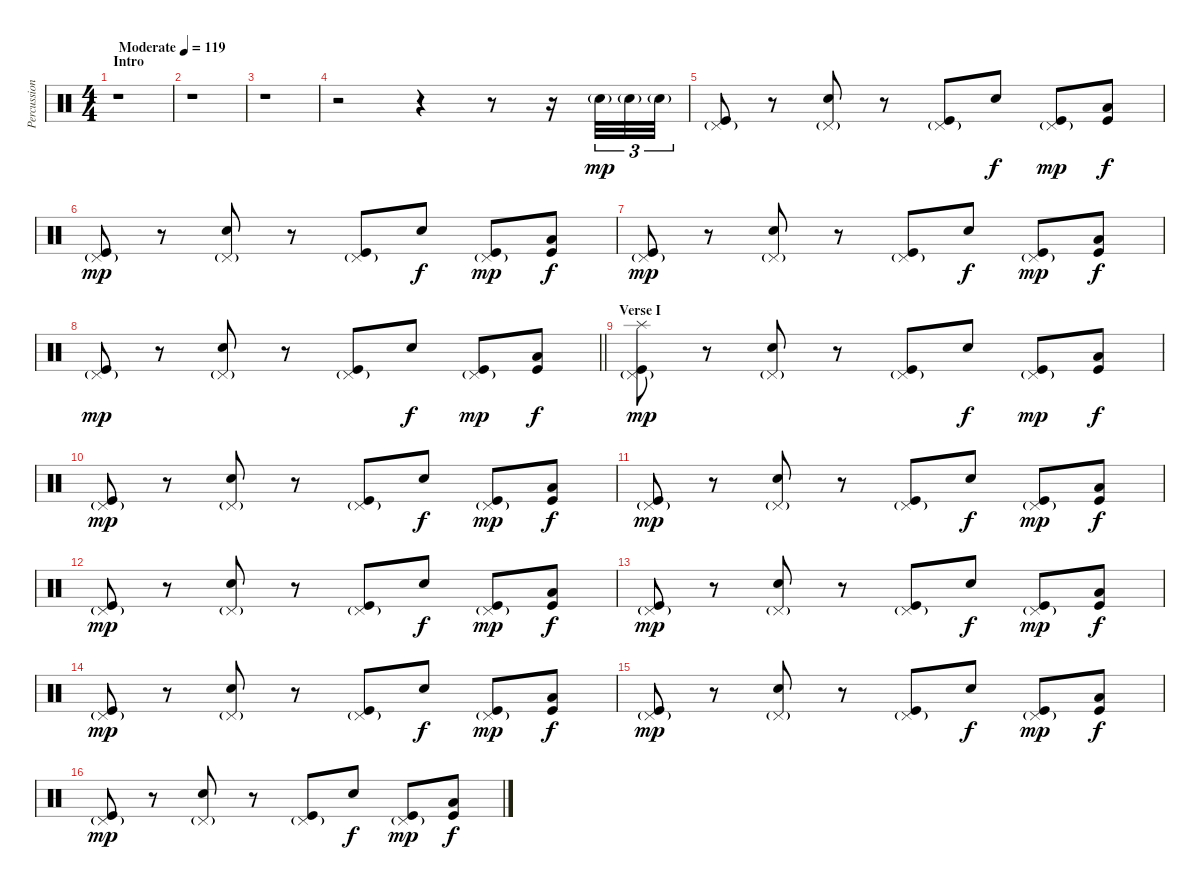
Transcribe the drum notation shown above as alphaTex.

\track ("Percussion" "Percussion") {instrument percussion}
\staff {score}
\articulation defaults
\ts (4 4)
\section ("" "Intro")
\tempo (119 "Moderate")
\clef neutral
\ks c
r.1{dy mp} |
r.1 |
r.1 |
r.2 r.4 r.8 r.16 "Snare (hit) 2"{g}.32{tu (3 2)} "Snare (hit) 2"{g}.32{tu (3 2)} "Snare (hit) 2"{g}.32{tu (3 2)} |
("Pedal Hi-Hat (hit)"{g} "Kick (hit)").8 r.8 ("Pedal Hi-Hat (hit)"{g} "Snare (hit) 2").8 r.8 ("Pedal Hi-Hat (hit)"{g} "Kick (hit)").8 "Snare (hit) 2".8{dy f} ("Pedal Hi-Hat (hit)"{g} "Kick (hit)").8{dy mp} ("Low Tom (hit)" "Kick (hit)").8{dy f} |
("Pedal Hi-Hat (hit)"{g} "Kick (hit)").8{dy mp} r.8 ("Pedal Hi-Hat (hit)"{g} "Snare (hit) 2").8 r.8 ("Pedal Hi-Hat (hit)"{g} "Kick (hit)").8 "Snare (hit) 2".8{dy f} ("Pedal Hi-Hat (hit)"{g} "Kick (hit)").8{dy mp} ("Low Tom (hit)" "Kick (hit)").8{dy f} |
("Pedal Hi-Hat (hit)"{g} "Kick (hit)").8{dy mp} r.8 ("Pedal Hi-Hat (hit)"{g} "Snare (hit) 2").8 r.8 ("Pedal Hi-Hat (hit)"{g} "Kick (hit)").8 "Snare (hit) 2".8{dy f} ("Pedal Hi-Hat (hit)"{g} "Kick (hit)").8{dy mp} ("Low Tom (hit)" "Kick (hit)").8{dy f} |
\barLineRight lightlight
("Pedal Hi-Hat (hit)"{g} "Kick (hit)").8{dy mp} r.8 ("Pedal Hi-Hat (hit)"{g} "Snare (hit) 2").8 r.8 ("Pedal Hi-Hat (hit)"{g} "Kick (hit)").8 "Snare (hit) 2".8{dy f} ("Pedal Hi-Hat (hit)"{g} "Kick (hit)").8{dy mp} ("Low Tom (hit)" "Kick (hit)").8{dy f} |
\section ("" "Verse I")
("Splash (hit)" "Pedal Hi-Hat (hit)"{g} "Kick (hit)").8{dy mp} r.8 ("Pedal Hi-Hat (hit)"{g} "Snare (hit) 2").8 r.8 ("Pedal Hi-Hat (hit)"{g} "Kick (hit)").8 "Snare (hit) 2".8{dy f} ("Pedal Hi-Hat (hit)"{g} "Kick (hit)").8{dy mp} ("Low Tom (hit)" "Kick (hit)").8{dy f} |
("Pedal Hi-Hat (hit)"{g} "Kick (hit)").8{dy mp} r.8 ("Pedal Hi-Hat (hit)"{g} "Snare (hit) 2").8 r.8 ("Pedal Hi-Hat (hit)"{g} "Kick (hit)").8 "Snare (hit) 2".8{dy f} ("Pedal Hi-Hat (hit)"{g} "Kick (hit)").8{dy mp} ("Low Tom (hit)" "Kick (hit)").8{dy f} |
("Pedal Hi-Hat (hit)"{g} "Kick (hit)").8{dy mp} r.8 ("Pedal Hi-Hat (hit)"{g} "Snare (hit) 2").8 r.8 ("Pedal Hi-Hat (hit)"{g} "Kick (hit)").8 "Snare (hit) 2".8{dy f} ("Pedal Hi-Hat (hit)"{g} "Kick (hit)").8{dy mp} ("Low Tom (hit)" "Kick (hit)").8{dy f} |
("Pedal Hi-Hat (hit)"{g} "Kick (hit)").8{dy mp} r.8 ("Pedal Hi-Hat (hit)"{g} "Snare (hit) 2").8 r.8 ("Pedal Hi-Hat (hit)"{g} "Kick (hit)").8 "Snare (hit) 2".8{dy f} ("Pedal Hi-Hat (hit)"{g} "Kick (hit)").8{dy mp} ("Low Tom (hit)" "Kick (hit)").8{dy f} |
("Pedal Hi-Hat (hit)"{g} "Kick (hit)").8{dy mp} r.8 ("Pedal Hi-Hat (hit)"{g} "Snare (hit) 2").8 r.8 ("Pedal Hi-Hat (hit)"{g} "Kick (hit)").8 "Snare (hit) 2".8{dy f} ("Pedal Hi-Hat (hit)"{g} "Kick (hit)").8{dy mp} ("Low Tom (hit)" "Kick (hit)").8{dy f} |
("Pedal Hi-Hat (hit)"{g} "Kick (hit)").8{dy mp} r.8 ("Pedal Hi-Hat (hit)"{g} "Snare (hit) 2").8 r.8 ("Pedal Hi-Hat (hit)"{g} "Kick (hit)").8 "Snare (hit) 2".8{dy f} ("Pedal Hi-Hat (hit)"{g} "Kick (hit)").8{dy mp} ("Low Tom (hit)" "Kick (hit)").8{dy f} |
("Pedal Hi-Hat (hit)"{g} "Kick (hit)").8{dy mp} r.8 ("Pedal Hi-Hat (hit)"{g} "Snare (hit) 2").8 r.8 ("Pedal Hi-Hat (hit)"{g} "Kick (hit)").8 "Snare (hit) 2".8{dy f} ("Pedal Hi-Hat (hit)"{g} "Kick (hit)").8{dy mp} ("Low Tom (hit)" "Kick (hit)").8{dy f} |
("Pedal Hi-Hat (hit)"{g} "Kick (hit)").8{dy mp} r.8 ("Pedal Hi-Hat (hit)"{g} "Snare (hit) 2").8 r.8 ("Pedal Hi-Hat (hit)"{g} "Kick (hit)").8 "Snare (hit) 2".8{dy f} ("Pedal Hi-Hat (hit)"{g} "Kick (hit)").8{dy mp} ("Low Tom (hit)" "Kick (hit)").8{dy f}
